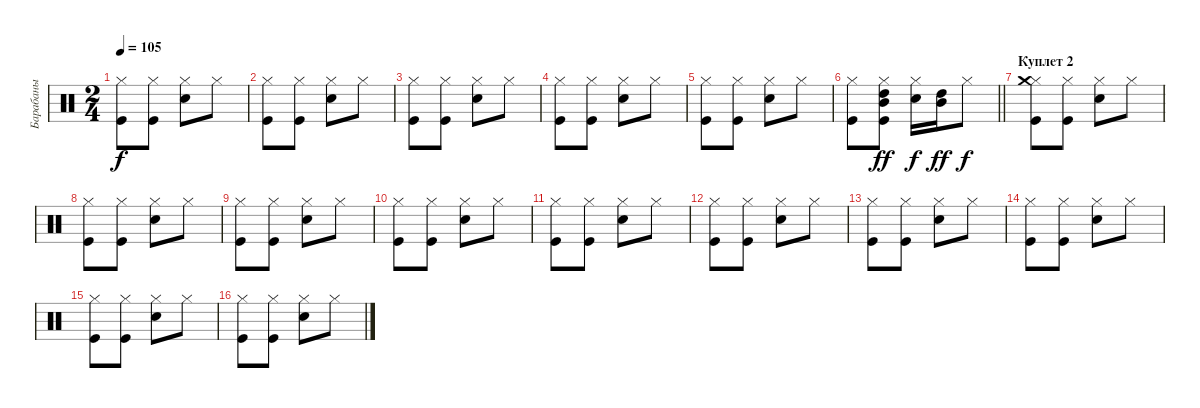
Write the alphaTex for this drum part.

\track ("Барабаны" "Барабаны") {instrument percussion}
\staff {score}
\articulation defaults
\ts (2 4)
\tempo 105
\clef neutral
\ks c
("Kick (hit)" "Hi-Hat (closed)").8{dy f} ("Kick (hit)" "Hi-Hat (closed)").8 ("Snare (hit) 2" "Hi-Hat (closed)").8 "Hi-Hat (closed)".8 |
("Kick (hit)" "Hi-Hat (closed)").8 ("Kick (hit)" "Hi-Hat (closed)").8 ("Snare (hit) 2" "Hi-Hat (closed)").8 "Hi-Hat (closed)".8 |
("Kick (hit)" "Hi-Hat (closed)").8 ("Kick (hit)" "Hi-Hat (closed)").8 ("Snare (hit) 2" "Hi-Hat (closed)").8 "Hi-Hat (closed)".8 |
("Kick (hit)" "Hi-Hat (closed)").8 ("Kick (hit)" "Hi-Hat (closed)").8 ("Snare (hit) 2" "Hi-Hat (closed)").8 "Hi-Hat (closed)".8 |
("Kick (hit)" "Hi-Hat (closed)").8 ("Kick (hit)" "Hi-Hat (closed)").8 ("Snare (hit) 2" "Hi-Hat (closed)").8 "Hi-Hat (closed)".8 |
\barLineRight lightlight
("Kick (hit)" "Hi-Hat (closed)").8 ("Kick (hit)" "Hi-Hat (closed)" "Mid Tom (hit)" "High Tom (hit)").8{dy ff} ("Snare (hit) 2" "Hi-Hat (closed)").16{dy f} ("Mid Tom (hit)" "High Tom (hit)").16{dy ff} "Hi-Hat (closed)".8{dy f} |
\section ("" "Куплет 2")
("Kick (hit)" "Hi-Hat (closed)" "Crash medium (hit)").8 ("Kick (hit)" "Hi-Hat (closed)").8 ("Snare (hit) 2" "Hi-Hat (closed)").8 "Hi-Hat (closed)".8 |
("Kick (hit)" "Hi-Hat (closed)").8 ("Kick (hit)" "Hi-Hat (closed)").8 ("Snare (hit) 2" "Hi-Hat (closed)").8 "Hi-Hat (closed)".8 |
("Kick (hit)" "Hi-Hat (closed)").8 ("Kick (hit)" "Hi-Hat (closed)").8 ("Snare (hit) 2" "Hi-Hat (closed)").8 "Hi-Hat (closed)".8 |
("Kick (hit)" "Hi-Hat (closed)").8 ("Kick (hit)" "Hi-Hat (closed)").8 ("Snare (hit) 2" "Hi-Hat (closed)").8 "Hi-Hat (closed)".8 |
("Kick (hit)" "Hi-Hat (closed)").8 ("Kick (hit)" "Hi-Hat (closed)").8 ("Snare (hit) 2" "Hi-Hat (closed)").8 "Hi-Hat (closed)".8 |
("Kick (hit)" "Hi-Hat (closed)").8 ("Kick (hit)" "Hi-Hat (closed)").8 ("Snare (hit) 2" "Hi-Hat (closed)").8 "Hi-Hat (closed)".8 |
("Kick (hit)" "Hi-Hat (closed)").8 ("Kick (hit)" "Hi-Hat (closed)").8 ("Snare (hit) 2" "Hi-Hat (closed)").8 "Hi-Hat (closed)".8 |
("Kick (hit)" "Hi-Hat (closed)").8 ("Kick (hit)" "Hi-Hat (closed)").8 ("Snare (hit) 2" "Hi-Hat (closed)").8 "Hi-Hat (closed)".8 |
("Kick (hit)" "Hi-Hat (closed)").8 ("Kick (hit)" "Hi-Hat (closed)").8 ("Snare (hit) 2" "Hi-Hat (closed)").8 "Hi-Hat (closed)".8 |
("Kick (hit)" "Hi-Hat (closed)").8 ("Kick (hit)" "Hi-Hat (closed)").8 ("Snare (hit) 2" "Hi-Hat (closed)").8 "Hi-Hat (closed)".8
